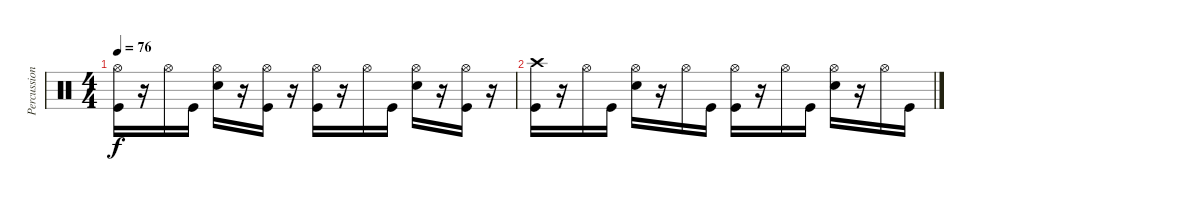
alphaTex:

\track ("Percussion" "Percussion") {instrument percussion}
\staff {score}
\articulation defaults
\ts (4 4)
\tempo 76
\clef neutral
\ks c
("Hi-Hat (open)" "Kick (hit)").16{dy f} r.16 "Hi-Hat (open)".16 "Kick (hit)".16 ("Hi-Hat (open)" "Electric Snare (hit)").16 r.16 ("Hi-Hat (open)" "Kick (hit)").16 r.16 ("Hi-Hat (open)" "Kick (hit)").16 r.16 "Hi-Hat (open)".16 "Kick (hit)".16 ("Hi-Hat (open)" "Electric Snare (hit)").16 r.16 ("Hi-Hat (open)" "Kick (hit)").16 r.16 |
("Crash high (hit)" "Kick (hit)").16 r.16 "Hi-Hat (open)".16 "Kick (hit)".16 ("Hi-Hat (open)" "Electric Snare (hit)").16 r.16 "Hi-Hat (open)".16 "Kick (hit)".16 ("Hi-Hat (open)" "Kick (hit)").16 r.16 "Hi-Hat (open)".16 "Kick (hit)".16 ("Hi-Hat (open)" "Electric Snare (hit)").16 r.16 "Hi-Hat (open)".16 "Kick (hit)".16
